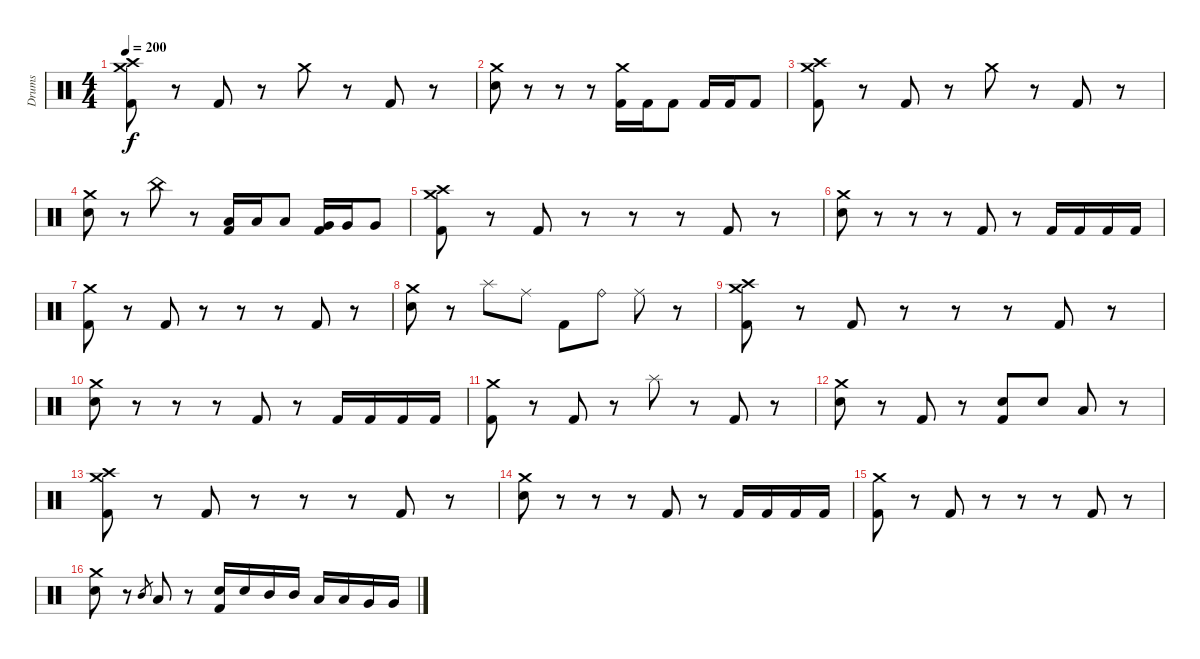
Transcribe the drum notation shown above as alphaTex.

\track ("Drums" "Drums") {instrument percussion}
\staff
\articulation defaults
\ts (4 4)
\tempo 200
\clef neutral
\ks c
("Crash medium (hit)" "Crash high (hit)" "Kick (hit) 2").8{dy f} r.8 "Kick (hit) 2".8 r.8 "Crash medium (hit)".8 r.8 "Kick (hit) 2".8 r.8 |
("Crash medium (hit)" "Electric Snare (hit)").8 r.8 r.8 r.8 ("Crash medium (hit)" "Kick (hit) 2").16 "Kick (hit) 2".16 "Kick (hit) 2".8 "Kick (hit) 2".16 "Kick (hit) 2".16 "Kick (hit) 2".8 |
("Crash medium (hit)" "Crash high (hit)" "Kick (hit) 2").8 r.8 "Kick (hit) 2".8 r.8 "Crash medium (hit)".8 r.8 "Kick (hit) 2".8 r.8 |
("Crash medium (hit)" "Electric Snare (hit)").8 r.8 "China (hit)".8 r.8 ("Low Tom (hit)" "Kick (hit) 2").16 "Low Tom (hit)".16 "Low Tom (hit)".8 ("Very Low Tom (hit)" "Kick (hit) 2").16 "Very Low Tom (hit)".16 "Very Low Tom (hit)".8 |
("Crash medium (hit)" "Crash high (hit)" "Kick (hit) 2").8 r.8 "Kick (hit) 2".8 r.8 r.8 r.8 "Kick (hit) 2".8 r.8 |
("Crash medium (hit)" "Electric Snare (hit)").8 r.8 r.8 r.8 "Kick (hit) 2".8 r.8 "Kick (hit) 2".16 "Kick (hit) 2".16 "Kick (hit) 2".16 "Kick (hit) 2".16 |
("Crash medium (hit)" "Kick (hit) 2").8 r.8 "Kick (hit) 2".8 r.8 r.8 r.8 "Kick (hit) 2".8 r.8 |
("Crash medium (hit)" "Electric Snare (hit)").8 r.8 "Splash (hit)".8 "Ride (middle)".8 "Kick (hit) 2".8 "Ride (bell)".8 "Ride (middle)".8 r.8 |
("Crash medium (hit)" "Crash high (hit)" "Kick (hit) 2").8 r.8 "Kick (hit) 2".8 r.8 r.8 r.8 "Kick (hit) 2".8 r.8 |
("Crash medium (hit)" "Electric Snare (hit)").8 r.8 r.8 r.8 "Kick (hit) 2".8 r.8 "Kick (hit) 2".16 "Kick (hit) 2".16 "Kick (hit) 2".16 "Kick (hit) 2".16 |
("Crash medium (hit)" "Kick (hit) 2").8 r.8 "Kick (hit) 2".8 r.8 "Splash (hit)".8 r.8 "Kick (hit) 2".8 r.8 |
("Crash medium (hit)" "Electric Snare (hit)").8 r.8 "Kick (hit) 2".8 r.8 ("Electric Snare (hit)" "Kick (hit) 2").8 "Electric Snare (hit)".8 "Low Tom (hit)".8 r.8 |
("Crash medium (hit)" "Crash high (hit)" "Kick (hit) 2").8 r.8 "Kick (hit) 2".8 r.8 r.8 r.8 "Kick (hit) 2".8 r.8 |
("Crash medium (hit)" "Electric Snare (hit)").8 r.8 r.8 r.8 "Kick (hit) 2".8 r.8 "Kick (hit) 2".16 "Kick (hit) 2".16 "Kick (hit) 2".16 "Kick (hit) 2".16 |
("Crash medium (hit)" "Kick (hit) 2").8 r.8 "Kick (hit) 2".8 r.8 r.8 r.8 "Kick (hit) 2".8 r.8 |
("Crash medium (hit)" "Electric Snare (hit)").8 r.8 "Mid Tom (hit)".8{gr} "Low Tom (hit)".8 r.8 ("Electric Snare (hit)" "Kick (hit) 2").16 "Electric Snare (hit)".16 "Mid Tom (hit)".16 "Mid Tom (hit)".16 "Low Tom (hit)".16 "Low Tom (hit)".16 "Very Low Tom (hit)".16 "Very Low Tom (hit)".16
